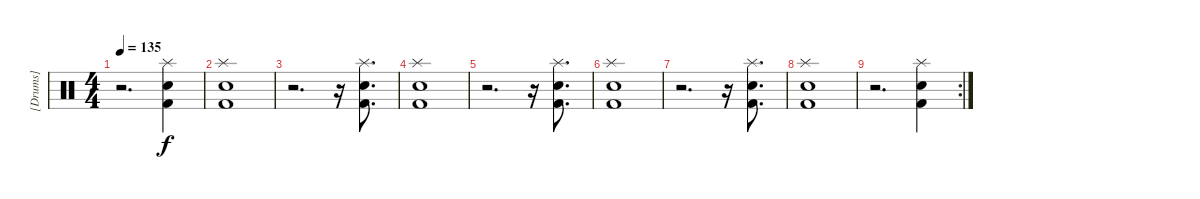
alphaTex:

\track ("[Drums]" "[Drums]") {instrument percussion}
\staff {score}
\articulation defaults
\ts (4 4)
\tempo 135
\clef neutral
\ks c
r.2{d dy f} ("Splash (hit)" "Snare (hit) 2" "Kick (hit) 2").4 |
("Splash (hit)" "Snare (hit) 2" "Kick (hit) 2").1 |
r.2{d} r.16 ("Splash (hit)" "Snare (hit) 2" "Kick (hit) 2").8{d} |
("Splash (hit)" "Snare (hit) 2" "Kick (hit) 2").1 |
r.2{d} r.16 ("Splash (hit)" "Snare (hit) 2" "Kick (hit) 2").8{d} |
("Splash (hit)" "Snare (hit) 2" "Kick (hit) 2").1 |
r.2{d} r.16 ("Splash (hit)" "Snare (hit) 2" "Kick (hit) 2").8{d} |
("Splash (hit)" "Snare (hit) 2" "Kick (hit) 2").1 |
\rc 2
r.2{d} ("Splash (hit)" "Snare (hit) 2" "Kick (hit) 2").4
